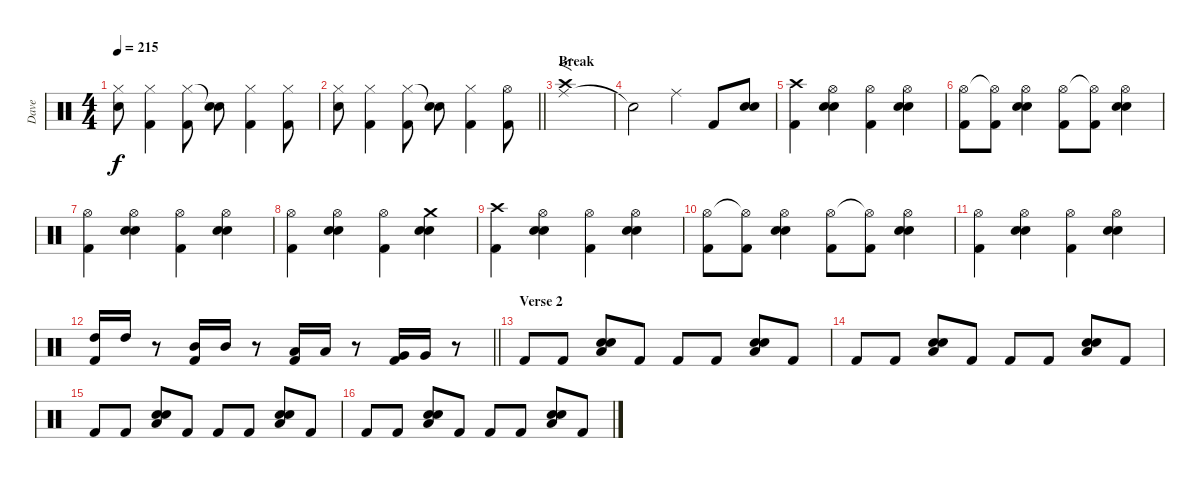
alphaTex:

\track ("Dave" "Dave") {instrument percussion}
\staff {score}
\articulation defaults
\ts (4 4)
\tempo 215
\clef neutral
\ks c
("Hi-Hat (closed)" "Electric Snare (hit)").8{dy f} ("Hi-Hat (closed)" "Kick (hit) 2").4 ("Hi-Hat (closed)" "Kick (hit) 2").8 ("Snare (hit)"{t} "Electric Snare (hit)").8 ("Hi-Hat (closed)" "Kick (hit) 2").4 ("Hi-Hat (closed)" "Kick (hit) 2").8 |
\barLineRight lightlight
("Hi-Hat (closed)" "Electric Snare (hit)").8 ("Hi-Hat (closed)" "Kick (hit) 2").4 ("Hi-Hat (closed)" "Kick (hit) 2").8 ("Snare (hit)"{t} "Electric Snare (hit)").8 ("Hi-Hat (closed)" "Kick (hit) 2").4 ("Hi-Hat (open)" "Kick (hit) 2").8 |
\section ("" "Break")
("Ride (middle)" "Crash high (hit)").1{f} |
"Snare (hit)"{t}.2 "Ride (middle)".4 "Kick (hit) 2".8 ("Electric Snare (hit)" "Electric Snare (hit)").8 |
("Crash high (hit)" "Kick (hit) 2").4 ("Hi-Hat (open)" "Electric Snare (hit)" "Electric Snare (hit)").4 ("Hi-Hat (open)" "Kick (hit) 2").4 ("Hi-Hat (open)" "Electric Snare (hit)" "Electric Snare (hit)").4 |
("Hi-Hat (open)" "Kick (hit) 2").8 ("Hi-Hat (open)"{t} "Kick (hit) 2").8 ("Hi-Hat (open)" "Electric Snare (hit)" "Electric Snare (hit)").4 ("Hi-Hat (open)" "Kick (hit) 2").8 ("Hi-Hat (open)"{t} "Kick (hit) 2").8 ("Hi-Hat (open)" "Electric Snare (hit)" "Electric Snare (hit)").4 |
("Hi-Hat (open)" "Kick (hit) 2").4 ("Hi-Hat (open)" "Electric Snare (hit)" "Electric Snare (hit)").4 ("Hi-Hat (open)" "Kick (hit) 2").4 ("Hi-Hat (open)" "Electric Snare (hit)" "Electric Snare (hit)").4 |
("Hi-Hat (open)" "Kick (hit) 2").4 ("Hi-Hat (open)" "Electric Snare (hit)" "Electric Snare (hit)").4 ("Hi-Hat (open)" "Kick (hit) 2").4 ("Crash medium (hit)" "Electric Snare (hit)" "Electric Snare (hit)").4 |
("Crash high (hit)" "Kick (hit) 2").4 ("Hi-Hat (open)" "Electric Snare (hit)" "Electric Snare (hit)").4 ("Hi-Hat (open)" "Kick (hit) 2").4 ("Hi-Hat (open)" "Electric Snare (hit)" "Electric Snare (hit)").4 |
("Hi-Hat (open)" "Kick (hit) 2").8 ("Hi-Hat (open)"{t} "Kick (hit) 2").8 ("Hi-Hat (open)" "Electric Snare (hit)" "Electric Snare (hit)").4 ("Hi-Hat (open)" "Kick (hit) 2").8 ("Hi-Hat (open)"{t} "Kick (hit) 2").8 ("Hi-Hat (open)" "Electric Snare (hit)" "Electric Snare (hit)").4 |
("Hi-Hat (open)" "Kick (hit) 2").4 ("Hi-Hat (open)" "Electric Snare (hit)" "Electric Snare (hit)").4 ("Hi-Hat (open)" "Kick (hit) 2").4 ("Hi-Hat (open)" "Electric Snare (hit)" "Electric Snare (hit)").4 |
\barLineRight lightlight
("Kick (hit) 2" "High Tom (hit)").16 "High Tom (hit)".16 r.8 ("Kick (hit) 2" "Mid Tom (hit)").16 "Mid Tom (hit)".16 r.8 ("Kick (hit) 2" "Low Tom (hit)").16 "Low Tom (hit)".16 r.8 ("Kick (hit) 2" "Very Low Tom (hit)").16 "Very Low Tom (hit)".16 r.8 |
\section ("" "Verse 2")
"Kick (hit) 2".8 "Kick (hit) 2".8 ("Low Floor Tom (hit)" "Electric Snare (hit)" "Electric Snare (hit)").8 "Kick (hit) 2".8 "Kick (hit) 2".8 "Kick (hit) 2".8 ("Low Floor Tom (hit)" "Electric Snare (hit)" "Electric Snare (hit)").8 "Kick (hit) 2".8 |
"Kick (hit) 2".8 "Kick (hit) 2".8 ("Low Floor Tom (hit)" "Electric Snare (hit)" "Electric Snare (hit)").8 "Kick (hit) 2".8 "Kick (hit) 2".8 "Kick (hit) 2".8 ("Low Floor Tom (hit)" "Electric Snare (hit)" "Electric Snare (hit)").8 "Kick (hit) 2".8 |
"Kick (hit) 2".8 "Kick (hit) 2".8 ("Low Floor Tom (hit)" "Electric Snare (hit)" "Electric Snare (hit)").8 "Kick (hit) 2".8 "Kick (hit) 2".8 "Kick (hit) 2".8 ("Low Floor Tom (hit)" "Electric Snare (hit)" "Electric Snare (hit)").8 "Kick (hit) 2".8 |
"Kick (hit) 2".8 "Kick (hit) 2".8 ("Low Floor Tom (hit)" "Electric Snare (hit)" "Electric Snare (hit)").8 "Kick (hit) 2".8 "Kick (hit) 2".8 "Kick (hit) 2".8 ("Low Floor Tom (hit)" "Electric Snare (hit)" "Electric Snare (hit)").8 "Kick (hit) 2".8
